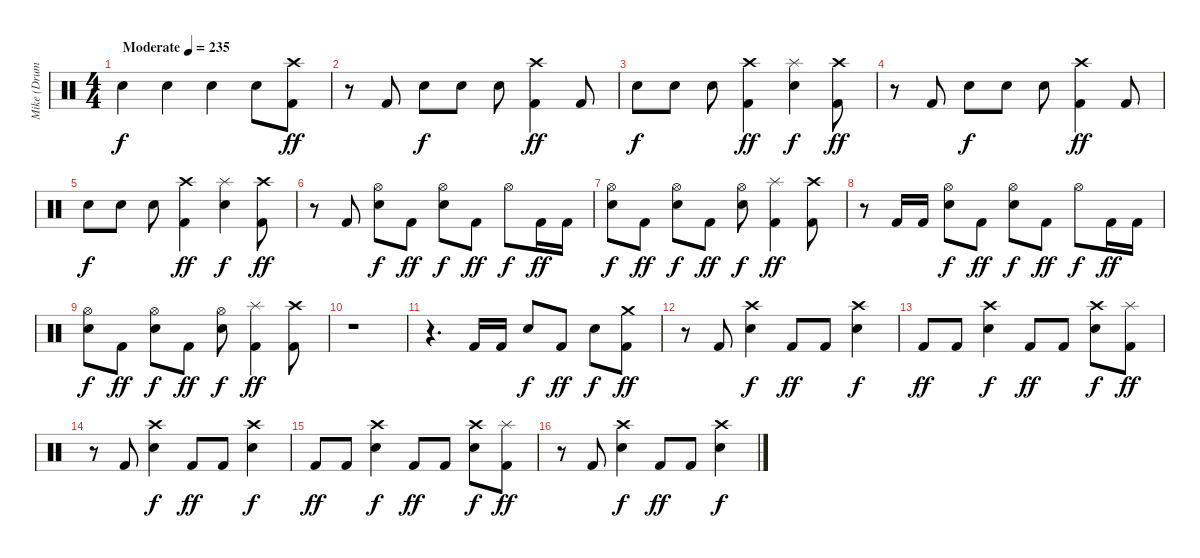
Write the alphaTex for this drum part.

\track ("Mike (Drums)" "Mike (Drum") {instrument percussion}
\staff {score}
\articulation defaults
\ts (4 4)
\tempo (235 "Moderate")
\clef neutral
\ks c "Electric Snare (hit)".4{dy f} "Electric Snare (hit)".4 "Electric Snare (hit)".4 "Electric Snare (hit)".8
("Crash high (hit)" "Kick (hit) 2").8{dy ff} |
r.8 "Kick (hit) 2".8 "Electric Snare (hit)".8{dy f} "Electric Snare (hit)".8 "Electric Snare (hit)".8 ("Crash high (hit)" "Kick (hit) 2").4{dy ff} "Kick (hit) 2".8 |
"Electric Snare (hit)".8{dy f} "Electric Snare (hit)".8 "Electric Snare (hit)".8 ("Crash high (hit)" "Kick (hit) 2").4{dy ff} ("Splash (hit)" "Electric Snare (hit)").4{dy f} ("Crash high (hit)" "Kick (hit) 2").8{dy ff} |
r.8 "Kick (hit) 2".8 "Electric Snare (hit)".8{dy f} "Electric Snare (hit)".8 "Electric Snare (hit)".8 ("Crash high (hit)" "Kick (hit) 2").4{dy ff} "Kick (hit) 2".8 |
"Electric Snare (hit)".8{dy f} "Electric Snare (hit)".8 "Electric Snare (hit)".8 ("Crash high (hit)" "Kick (hit) 2").4{dy ff} ("Splash (hit)" "Electric Snare (hit)").4{dy f} ("Crash high (hit)" "Kick (hit) 2").8{dy ff} |
r.8 "Kick (hit) 2".8 ("Hi-Hat (open)" "Electric Snare (hit)").8{dy f} "Kick (hit) 2".8{dy ff} ("Hi-Hat (open)" "Electric Snare (hit)").8{dy f} "Kick (hit) 2".8{dy ff} "Hi-Hat (open)".8{dy f} "Kick (hit) 2".16{dy ff} "Kick (hit) 2".16 |
("Hi-Hat (open)" "Electric Snare (hit)").8{dy f} "Kick (hit) 2".8{dy ff} ("Hi-Hat (open)" "Electric Snare (hit)").8{dy f} "Kick (hit) 2".8{dy ff} ("Hi-Hat (open)" "Electric Snare (hit)").8{dy f} ("Splash (hit)" "Kick (hit) 2").4{dy ff} ("Crash high (hit)" "Kick (hit) 2").8 |
r.8 "Kick (hit) 2".16 "Kick (hit) 2".16 ("Hi-Hat (open)" "Electric Snare (hit)").8{dy f} "Kick (hit) 2".8{dy ff} ("Hi-Hat (open)" "Electric Snare (hit)").8{dy f} "Kick (hit) 2".8{dy ff} "Hi-Hat (open)".8{dy f} "Kick (hit) 2".16{dy ff} "Kick (hit) 2".16 |
("Hi-Hat (open)" "Electric Snare (hit)").8{dy f} "Kick (hit) 2".8{dy ff} ("Hi-Hat (open)" "Electric Snare (hit)").8{dy f} "Kick (hit) 2".8{dy ff} ("Hi-Hat (open)" "Electric Snare (hit)").8{dy f} ("Splash (hit)" "Kick (hit) 2").4{dy ff} ("Crash high (hit)" "Kick (hit) 2").8 |
r.1 |
r.4{d} "Kick (hit) 2".16 "Kick (hit) 2".16 "Electric Snare (hit)".8{dy f} "Kick (hit) 2".8{dy ff} "Electric Snare (hit)".8{dy f} ("Crash medium (hit)" "Kick (hit) 2").8{dy ff} |
r.8 "Kick (hit) 2".8 ("Crash high (hit)" "Electric Snare (hit)").4{dy f} "Kick (hit) 2".8{dy ff} "Kick (hit) 2".8 ("Crash high (hit)" "Electric Snare (hit)").4{dy f} |
"Kick (hit) 2".8{dy ff} "Kick (hit) 2".8 ("Crash high (hit)" "Electric Snare (hit)").4{dy f} "Kick (hit) 2".8{dy ff} "Kick (hit) 2".8 ("Crash high (hit)" "Electric Snare (hit)").8{dy f} ("Splash (hit)" "Kick (hit) 2").8{dy ff} |
r.8 "Kick (hit) 2".8 ("Crash high (hit)" "Electric Snare (hit)").4{dy f} "Kick (hit) 2".8{dy ff} "Kick (hit) 2".8 ("Crash high (hit)" "Electric Snare (hit)").4{dy f} |
"Kick (hit) 2".8{dy ff} "Kick (hit) 2".8 ("Crash high (hit)" "Electric Snare (hit)").4{dy f} "Kick (hit) 2".8{dy ff} "Kick (hit) 2".8 ("Crash high (hit)" "Electric Snare (hit)").8{dy f} ("Splash (hit)" "Kick (hit) 2").8{dy ff} |
r.8 "Kick (hit) 2".8 ("Crash high (hit)" "Electric Snare (hit)").4{dy f} "Kick (hit) 2".8{dy ff} "Kick (hit) 2".8 ("Crash high (hit)" "Electric Snare (hit)").4{dy f}
